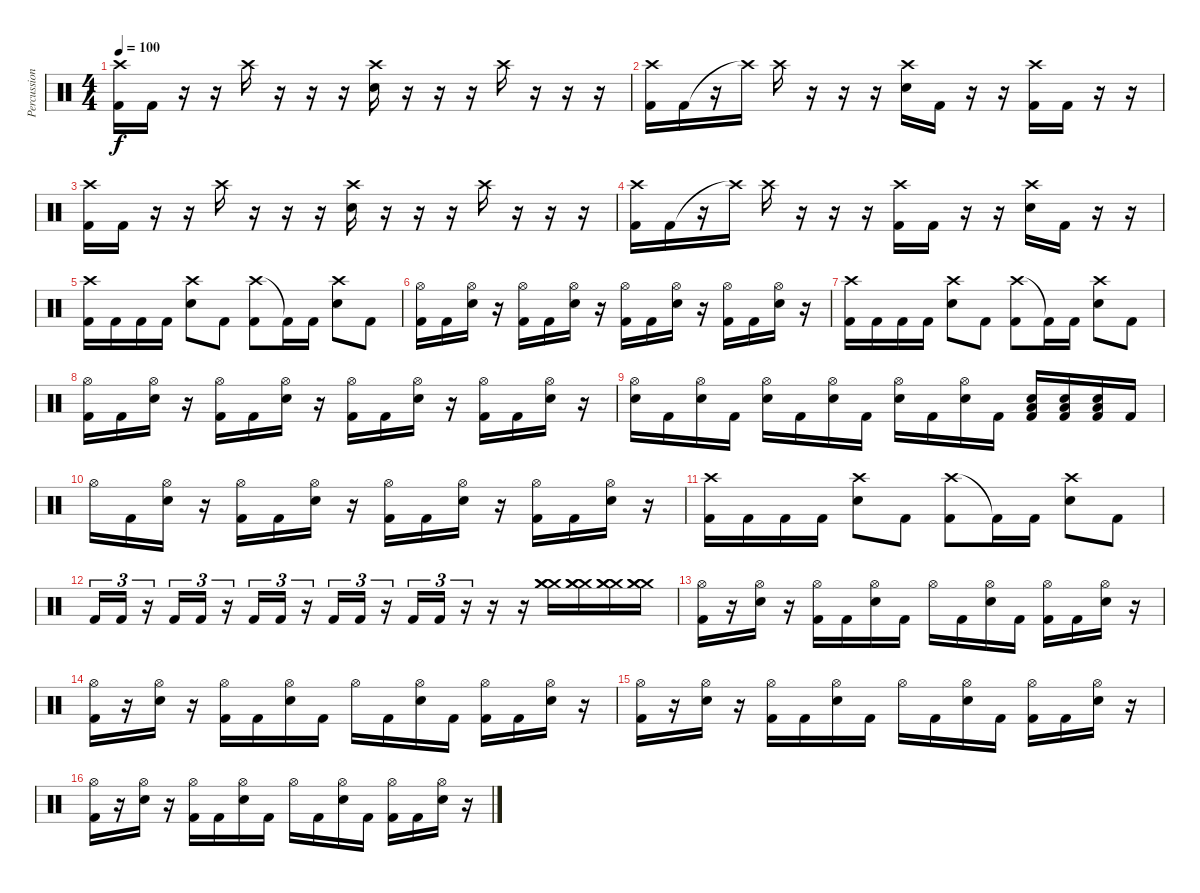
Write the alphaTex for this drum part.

\track ("Percussion" "Percussion") {instrument percussion}
\staff {score}
\articulation defaults
\ts (4 4)
\tempo 100
\clef neutral
\ks c
("Crash high (hit)" "Kick (hit) 2").16{dy f} "Kick (hit) 2".16 r.16 r.16 "Crash high (hit)".16 r.16 r.16 r.16 ("Crash high (hit)" "Snare (hit) 2").16 r.16 r.16 r.16 "Crash high (hit)".16 r.16 r.16 r.16 |
("Crash high (hit)" "Kick (hit) 2").16 "Kick (hit) 2".16 r.16 "Crash high (hit)"{t}.16 "Crash high (hit)".16 r.16 r.16 r.16 ("Crash high (hit)" "Snare (hit) 2").16 "Kick (hit) 2".16 r.16 r.16 ("Crash high (hit)" "Kick (hit) 2").16 "Kick (hit) 2".16 r.16 r.16 |
("Crash high (hit)" "Kick (hit) 2").16 "Kick (hit) 2".16 r.16 r.16 "Crash high (hit)".16 r.16 r.16 r.16 ("Crash high (hit)" "Snare (hit) 2").16 r.16 r.16 r.16 "Crash high (hit)".16 r.16 r.16 r.16 |
("Crash high (hit)" "Kick (hit) 2").16 "Kick (hit) 2".16 r.16 "Crash high (hit)"{t}.16 "Crash high (hit)".16 r.16 r.16 r.16 ("Crash high (hit)" "Kick (hit) 2").16 "Kick (hit) 2".16 r.16 r.16 ("Crash high (hit)" "Snare (hit) 2").16 "Kick (hit) 2".16 r.16 r.16 |
("Crash high (hit)" "Kick (hit) 2").16 "Kick (hit) 2".16 "Kick (hit) 2".16 "Kick (hit) 2".16 ("Crash high (hit)" "Snare (hit) 2").8 "Kick (hit) 2".8 ("Crash high (hit)" "Kick (hit) 2").8 "Kick (hit) 2"{t}.16 "Kick (hit) 2".16 ("Crash high (hit)" "Snare (hit) 2").8 "Kick (hit) 2".8 |
("Hi-Hat (open)" "Kick (hit) 2").16 "Kick (hit) 2".16 ("Hi-Hat (open)" "Snare (hit) 2").16 r.16 ("Hi-Hat (open)" "Kick (hit) 2").16 "Kick (hit) 2".16 ("Hi-Hat (open)" "Snare (hit) 2").16 r.16 ("Hi-Hat (open)" "Kick (hit) 2").16 "Kick (hit) 2".16 ("Hi-Hat (open)" "Snare (hit) 2").16 r.16 ("Hi-Hat (open)" "Kick (hit) 2").16 "Kick (hit) 2".16 ("Hi-Hat (open)" "Snare (hit) 2").16 r.16 |
("Crash high (hit)" "Kick (hit) 2").16 "Kick (hit) 2".16 "Kick (hit) 2".16 "Kick (hit) 2".16 ("Crash high (hit)" "Snare (hit) 2").8 "Kick (hit) 2".8 ("Crash high (hit)" "Kick (hit) 2").8 "Kick (hit) 2"{t}.16 "Kick (hit) 2".16 ("Crash high (hit)" "Snare (hit) 2").8 "Kick (hit) 2".8 |
("Hi-Hat (open)" "Kick (hit) 2").16 "Kick (hit) 2".16 ("Hi-Hat (open)" "Snare (hit) 2").16 r.16 ("Hi-Hat (open)" "Kick (hit) 2").16 "Kick (hit) 2".16 ("Hi-Hat (open)" "Snare (hit) 2").16 r.16 ("Hi-Hat (open)" "Kick (hit) 2").16 "Kick (hit) 2".16 ("Hi-Hat (open)" "Snare (hit) 2").16 r.16 ("Hi-Hat (open)" "Kick (hit) 2").16 "Kick (hit) 2".16 ("Hi-Hat (open)" "Snare (hit) 2").16 r.16 |
("Hi-Hat (open)" "Snare (hit) 2").16 "Kick (hit) 2".16 ("Hi-Hat (open)" "Snare (hit) 2").16 "Kick (hit) 2".16 ("Hi-Hat (open)" "Snare (hit) 2").16 "Kick (hit) 2".16 ("Hi-Hat (open)" "Snare (hit) 2").16 "Kick (hit) 2".16 ("Hi-Hat (open)" "Snare (hit) 2").16 "Kick (hit) 2".16 ("Hi-Hat (open)" "Snare (hit) 2").16 "Kick (hit) 2".16 ("Low Floor Tom (hit)" "Snare (hit) 2" "Kick (hit) 2").16 ("Low Floor Tom (hit)" "Snare (hit) 2" "Kick (hit) 2").16 ("Low Floor Tom (hit)" "Snare (hit) 2" "Kick (hit) 2").16 "Kick (hit) 2".16 |
"Hi-Hat (open)".16 "Kick (hit) 2".16 ("Hi-Hat (open)" "Snare (hit) 2").16 r.16 ("Hi-Hat (open)" "Kick (hit) 2").16 "Kick (hit) 2".16 ("Hi-Hat (open)" "Snare (hit) 2").16 r.16 ("Hi-Hat (open)" "Kick (hit) 2").16 "Kick (hit) 2".16 ("Hi-Hat (open)" "Snare (hit) 2").16 r.16 ("Hi-Hat (open)" "Kick (hit) 2").16 "Kick (hit) 2".16 ("Hi-Hat (open)" "Snare (hit) 2").16 r.16 |
("Crash high (hit)" "Kick (hit) 2").16 "Kick (hit) 2".16 "Kick (hit) 2".16 "Kick (hit) 2".16 ("Crash high (hit)" "Snare (hit) 2").8 "Kick (hit) 2".8 ("Crash high (hit)" "Kick (hit) 2").8 "Kick (hit) 2"{t}.16 "Kick (hit) 2".16 ("Crash high (hit)" "Snare (hit) 2").8 "Kick (hit) 2".8 |
"Kick (hit) 2".16{tu (3 2)} "Kick (hit) 2".16{tu (3 2)} r.16{tu (3 2)} "Kick (hit) 2".16{tu (3 2)} "Kick (hit) 2".16{tu (3 2)} r.16{tu (3 2)} "Kick (hit) 2".16{tu (3 2)} "Kick (hit) 2".16{tu (3 2)} r.16{tu (3 2)} "Kick (hit) 2".16{tu (3 2)} "Kick (hit) 2".16{tu (3 2)} r.16{tu (3 2)} "Kick (hit) 2".16{tu (3 2)} "Kick (hit) 2".16{tu (3 2)} r.16{tu (3 2)} r.16 r.16 ("Crash medium (hit)" "Crash medium (hit)" "Crash medium (hit)").16 ("Crash medium (hit)" "Crash medium (hit)" "Crash medium (hit)").16 ("Crash medium (hit)" "Crash medium (hit)" "Crash medium (hit)").16 ("Crash medium (hit)" "Crash medium (hit)" "Crash medium (hit)").16 |
("Hi-Hat (open)" "Kick (hit) 2").16 r.16 ("Hi-Hat (open)" "Snare (hit) 2").16 r.16 ("Hi-Hat (open)" "Kick (hit) 2").16 "Kick (hit) 2".16 ("Hi-Hat (open)" "Snare (hit) 2").16 "Kick (hit) 2".16 "Hi-Hat (open)".16 "Kick (hit) 2".16 ("Hi-Hat (open)" "Snare (hit) 2").16 "Kick (hit) 2".16 ("Hi-Hat (open)" "Kick (hit) 2").16 "Kick (hit) 2".16 ("Hi-Hat (open)" "Snare (hit) 2").16 r.16 |
("Hi-Hat (open)" "Kick (hit) 2").16 r.16 ("Hi-Hat (open)" "Snare (hit) 2").16 r.16 ("Hi-Hat (open)" "Kick (hit) 2").16 "Kick (hit) 2".16 ("Hi-Hat (open)" "Snare (hit) 2").16 "Kick (hit) 2".16 "Hi-Hat (open)".16 "Kick (hit) 2".16 ("Hi-Hat (open)" "Snare (hit) 2").16 "Kick (hit) 2".16 ("Hi-Hat (open)" "Kick (hit) 2").16 "Kick (hit) 2".16 ("Hi-Hat (open)" "Snare (hit) 2").16 r.16 |
("Hi-Hat (open)" "Kick (hit) 2").16 r.16 ("Hi-Hat (open)" "Snare (hit) 2").16 r.16 ("Hi-Hat (open)" "Kick (hit) 2").16 "Kick (hit) 2".16 ("Hi-Hat (open)" "Snare (hit) 2").16 "Kick (hit) 2".16 "Hi-Hat (open)".16 "Kick (hit) 2".16 ("Hi-Hat (open)" "Snare (hit) 2").16 "Kick (hit) 2".16 ("Hi-Hat (open)" "Kick (hit) 2").16 "Kick (hit) 2".16 ("Hi-Hat (open)" "Snare (hit) 2").16 r.16 |
("Hi-Hat (open)" "Kick (hit) 2").16 r.16 ("Hi-Hat (open)" "Snare (hit) 2").16 r.16 ("Hi-Hat (open)" "Kick (hit) 2").16 "Kick (hit) 2".16 ("Hi-Hat (open)" "Snare (hit) 2").16 "Kick (hit) 2".16 "Hi-Hat (open)".16 "Kick (hit) 2".16 ("Hi-Hat (open)" "Snare (hit) 2").16 "Kick (hit) 2".16 ("Hi-Hat (open)" "Kick (hit) 2").16 "Kick (hit) 2".16 ("Hi-Hat (open)" "Snare (hit) 2").16 r.16
